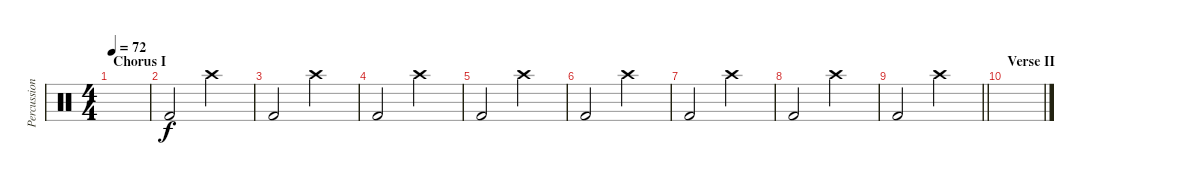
\track ("Percussion" "Percussion") {instrument percussion}
\staff {score}
\articulation defaults
\ts (4 4)
\section ("" "Chorus I")
\tempo 72
\clef neutral
\ks c
|
"Kick (hit) 2".2 "Crash high (hit)".2 |
"Kick (hit) 2".2 "Crash high (hit)".2 |
"Kick (hit) 2".2 "Crash high (hit)".2 |
"Kick (hit) 2".2 "Crash high (hit)".2 |
"Kick (hit) 2".2 "Crash high (hit)".2 |
"Kick (hit) 2".2 "Crash high (hit)".2 |
"Kick (hit) 2".2 "Crash high (hit)".2 |
\barLineRight lightlight "Kick (hit) 2".2 "Crash high (hit)".2
|
\section ("" "Verse II")
